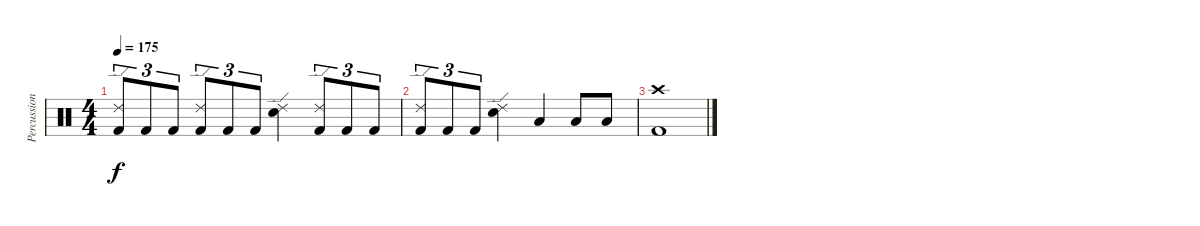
\track ("Percussion" "Percussion") {instrument percussion}
\staff {score}
\articulation defaults
\ts (4 4)
\tempo 175
\clef neutral
\ks c
("Ride (edge) 2" "Kick (hit) 2").8{tu (3 2) dy f} "Kick (hit) 2".8{tu (3 2)} "Kick (hit) 2".8{tu (3 2)} ("Ride (edge) 2" "Kick (hit) 2").8{tu (3 2)} "Kick (hit) 2".8{tu (3 2)} "Kick (hit) 2".8{tu (3 2)} ("Ride (edge) 2" "Snare (hit) 2").4 ("Ride (edge) 2" "Kick (hit) 2").8{tu (3 2)} "Kick (hit) 2".8{tu (3 2)} "Kick (hit) 2".8{tu (3 2)} |
("Ride (edge) 2" "Kick (hit) 2").8{tu (3 2)} "Kick (hit) 2".8{tu (3 2)} "Kick (hit) 2".8{tu (3 2)} ("Ride (edge) 2" "Snare (hit) 2").4 "Low Tom (hit)".4 "Low Tom (hit)".8 "Low Tom (hit)".8 |
("Crash high (hit)" "Kick (hit) 2").1
